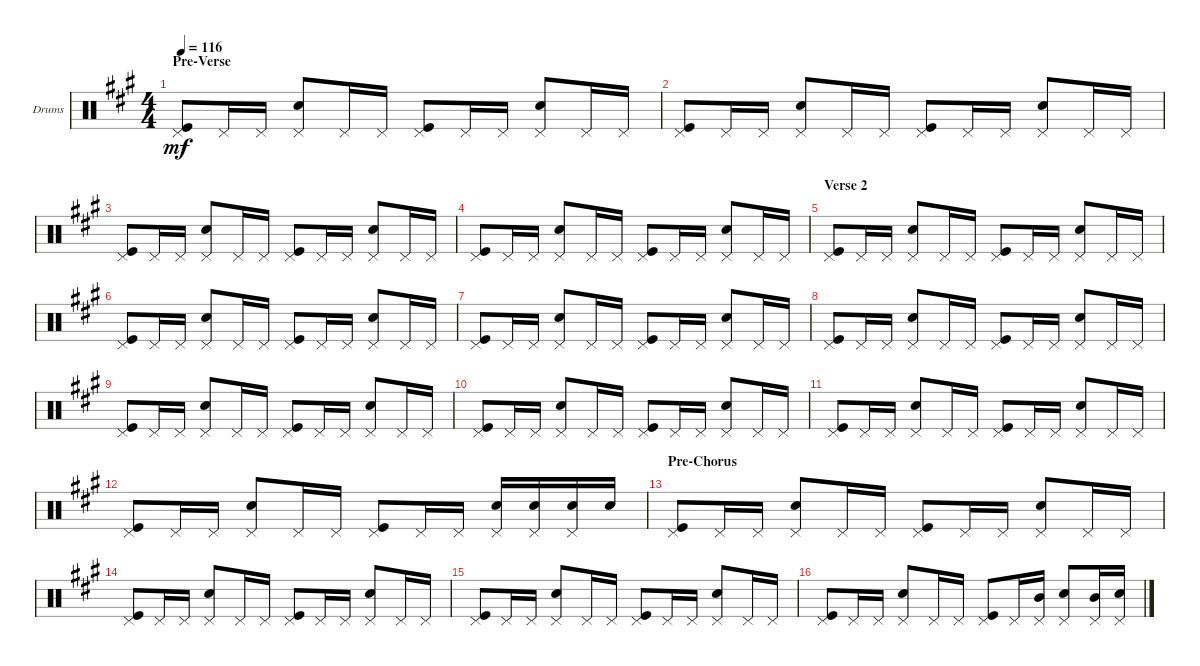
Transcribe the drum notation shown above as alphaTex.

\defaultSystemsLayout 4
\bracketExtendMode groupsimilarinstruments
\firstSystemTrackNameOrientation horizontal
\otherSystemsTrackNameOrientation horizontal
\track ("Drumkit" "Drums") {instrument percussion}
\staff {score}
\articulation defaults
\ts (4 4)
\section ("" "Pre-Verse")
\tempo 116
\clef neutral
\ks a
("Pedal Hi-Hat (hit)" "Kick (hit)").8{dy mf} "Pedal Hi-Hat (hit)".16 "Pedal Hi-Hat (hit)".16 ("Pedal Hi-Hat (hit)" "Snare (hit) 2").8 "Pedal Hi-Hat (hit)".16 "Pedal Hi-Hat (hit)".16 ("Pedal Hi-Hat (hit)" "Kick (hit)").8 "Pedal Hi-Hat (hit)".16 "Pedal Hi-Hat (hit)".16 ("Pedal Hi-Hat (hit)" "Snare (hit) 2").8 "Pedal Hi-Hat (hit)".16 "Pedal Hi-Hat (hit)".16 |
("Pedal Hi-Hat (hit)" "Kick (hit)").8 "Pedal Hi-Hat (hit)".16 "Pedal Hi-Hat (hit)".16 ("Pedal Hi-Hat (hit)" "Snare (hit) 2").8 "Pedal Hi-Hat (hit)".16 "Pedal Hi-Hat (hit)".16 ("Pedal Hi-Hat (hit)" "Kick (hit)").8 "Pedal Hi-Hat (hit)".16 "Pedal Hi-Hat (hit)".16 ("Pedal Hi-Hat (hit)" "Snare (hit) 2").8 "Pedal Hi-Hat (hit)".16 "Pedal Hi-Hat (hit)".16 |
("Pedal Hi-Hat (hit)" "Kick (hit)").8 "Pedal Hi-Hat (hit)".16 "Pedal Hi-Hat (hit)".16 ("Pedal Hi-Hat (hit)" "Snare (hit) 2").8 "Pedal Hi-Hat (hit)".16 "Pedal Hi-Hat (hit)".16 ("Pedal Hi-Hat (hit)" "Kick (hit)").8 "Pedal Hi-Hat (hit)".16 "Pedal Hi-Hat (hit)".16 ("Pedal Hi-Hat (hit)" "Snare (hit) 2").8 "Pedal Hi-Hat (hit)".16 "Pedal Hi-Hat (hit)".16 |
("Pedal Hi-Hat (hit)" "Kick (hit)").8 "Pedal Hi-Hat (hit)".16 "Pedal Hi-Hat (hit)".16 ("Pedal Hi-Hat (hit)" "Snare (hit) 2").8 "Pedal Hi-Hat (hit)".16 "Pedal Hi-Hat (hit)".16 ("Pedal Hi-Hat (hit)" "Kick (hit)").8 "Pedal Hi-Hat (hit)".16 "Pedal Hi-Hat (hit)".16 ("Pedal Hi-Hat (hit)" "Snare (hit) 2").8 "Pedal Hi-Hat (hit)".16 "Pedal Hi-Hat (hit)".16 |
\section ("" "Verse 2")
("Pedal Hi-Hat (hit)" "Kick (hit)").8 "Pedal Hi-Hat (hit)".16 "Pedal Hi-Hat (hit)".16 ("Pedal Hi-Hat (hit)" "Snare (hit) 2").8 "Pedal Hi-Hat (hit)".16 "Pedal Hi-Hat (hit)".16 ("Pedal Hi-Hat (hit)" "Kick (hit)").8 "Pedal Hi-Hat (hit)".16 "Pedal Hi-Hat (hit)".16 ("Pedal Hi-Hat (hit)" "Snare (hit) 2").8 "Pedal Hi-Hat (hit)".16 "Pedal Hi-Hat (hit)".16 |
("Pedal Hi-Hat (hit)" "Kick (hit)").8 "Pedal Hi-Hat (hit)".16 "Pedal Hi-Hat (hit)".16 ("Pedal Hi-Hat (hit)" "Snare (hit) 2").8 "Pedal Hi-Hat (hit)".16 "Pedal Hi-Hat (hit)".16 ("Pedal Hi-Hat (hit)" "Kick (hit)").8 "Pedal Hi-Hat (hit)".16 "Pedal Hi-Hat (hit)".16 ("Pedal Hi-Hat (hit)" "Snare (hit) 2").8 "Pedal Hi-Hat (hit)".16 "Pedal Hi-Hat (hit)".16 |
("Pedal Hi-Hat (hit)" "Kick (hit)").8 "Pedal Hi-Hat (hit)".16 "Pedal Hi-Hat (hit)".16 ("Pedal Hi-Hat (hit)" "Snare (hit) 2").8 "Pedal Hi-Hat (hit)".16 "Pedal Hi-Hat (hit)".16 ("Pedal Hi-Hat (hit)" "Kick (hit)").8 "Pedal Hi-Hat (hit)".16 "Pedal Hi-Hat (hit)".16 ("Pedal Hi-Hat (hit)" "Snare (hit) 2").8 "Pedal Hi-Hat (hit)".16 "Pedal Hi-Hat (hit)".16 |
("Pedal Hi-Hat (hit)" "Kick (hit)").8 "Pedal Hi-Hat (hit)".16 "Pedal Hi-Hat (hit)".16 ("Pedal Hi-Hat (hit)" "Snare (hit) 2").8 "Pedal Hi-Hat (hit)".16 "Pedal Hi-Hat (hit)".16 ("Pedal Hi-Hat (hit)" "Kick (hit)").8 "Pedal Hi-Hat (hit)".16 "Pedal Hi-Hat (hit)".16 ("Pedal Hi-Hat (hit)" "Snare (hit) 2").8 "Pedal Hi-Hat (hit)".16 "Pedal Hi-Hat (hit)".16 |
("Pedal Hi-Hat (hit)" "Kick (hit)").8 "Pedal Hi-Hat (hit)".16 "Pedal Hi-Hat (hit)".16 ("Pedal Hi-Hat (hit)" "Snare (hit) 2").8 "Pedal Hi-Hat (hit)".16 "Pedal Hi-Hat (hit)".16 ("Pedal Hi-Hat (hit)" "Kick (hit)").8 "Pedal Hi-Hat (hit)".16 "Pedal Hi-Hat (hit)".16 ("Pedal Hi-Hat (hit)" "Snare (hit) 2").8 "Pedal Hi-Hat (hit)".16 "Pedal Hi-Hat (hit)".16 |
("Pedal Hi-Hat (hit)" "Kick (hit)").8 "Pedal Hi-Hat (hit)".16 "Pedal Hi-Hat (hit)".16 ("Pedal Hi-Hat (hit)" "Snare (hit) 2").8 "Pedal Hi-Hat (hit)".16 "Pedal Hi-Hat (hit)".16 ("Pedal Hi-Hat (hit)" "Kick (hit)").8 "Pedal Hi-Hat (hit)".16 "Pedal Hi-Hat (hit)".16 ("Pedal Hi-Hat (hit)" "Snare (hit) 2").8 "Pedal Hi-Hat (hit)".16 "Pedal Hi-Hat (hit)".16 |
("Pedal Hi-Hat (hit)" "Kick (hit)").8 "Pedal Hi-Hat (hit)".16 "Pedal Hi-Hat (hit)".16 ("Pedal Hi-Hat (hit)" "Snare (hit) 2").8 "Pedal Hi-Hat (hit)".16 "Pedal Hi-Hat (hit)".16 ("Pedal Hi-Hat (hit)" "Kick (hit)").8 "Pedal Hi-Hat (hit)".16 "Pedal Hi-Hat (hit)".16 ("Pedal Hi-Hat (hit)" "Snare (hit) 2").8 "Pedal Hi-Hat (hit)".16 "Pedal Hi-Hat (hit)".16 |
("Pedal Hi-Hat (hit)" "Kick (hit)").8 "Pedal Hi-Hat (hit)".16 "Pedal Hi-Hat (hit)".16 ("Pedal Hi-Hat (hit)" "Snare (hit) 2").8 "Pedal Hi-Hat (hit)".16 "Pedal Hi-Hat (hit)".16 ("Pedal Hi-Hat (hit)" "Kick (hit)").8 "Pedal Hi-Hat (hit)".16 "Pedal Hi-Hat (hit)".16 ("Pedal Hi-Hat (hit)" "Snare (hit) 2").16 ("Pedal Hi-Hat (hit)" "Snare (hit) 2").16 ("Pedal Hi-Hat (hit)" "Snare (hit) 2").16 "Snare (hit) 2".16 |
\section ("" "Pre-Chorus")
("Pedal Hi-Hat (hit)" "Kick (hit)").8 "Pedal Hi-Hat (hit)".16 "Pedal Hi-Hat (hit)".16 ("Pedal Hi-Hat (hit)" "Snare (hit) 2").8 "Pedal Hi-Hat (hit)".16 "Pedal Hi-Hat (hit)".16 ("Pedal Hi-Hat (hit)" "Kick (hit)").8 "Pedal Hi-Hat (hit)".16 "Pedal Hi-Hat (hit)".16 ("Pedal Hi-Hat (hit)" "Snare (hit) 2").8 "Pedal Hi-Hat (hit)".16 "Pedal Hi-Hat (hit)".16 |
("Pedal Hi-Hat (hit)" "Kick (hit)").8 "Pedal Hi-Hat (hit)".16 "Pedal Hi-Hat (hit)".16 ("Pedal Hi-Hat (hit)" "Snare (hit) 2").8 "Pedal Hi-Hat (hit)".16 "Pedal Hi-Hat (hit)".16 ("Pedal Hi-Hat (hit)" "Kick (hit)").8 "Pedal Hi-Hat (hit)".16 "Pedal Hi-Hat (hit)".16 ("Pedal Hi-Hat (hit)" "Snare (hit) 2").8 "Pedal Hi-Hat (hit)".16 "Pedal Hi-Hat (hit)".16 |
("Pedal Hi-Hat (hit)" "Kick (hit)").8 "Pedal Hi-Hat (hit)".16 "Pedal Hi-Hat (hit)".16 ("Pedal Hi-Hat (hit)" "Snare (hit) 2").8 "Pedal Hi-Hat (hit)".16 "Pedal Hi-Hat (hit)".16 ("Pedal Hi-Hat (hit)" "Kick (hit)").8 "Pedal Hi-Hat (hit)".16 "Pedal Hi-Hat (hit)".16 ("Pedal Hi-Hat (hit)" "Snare (hit) 2").8 "Pedal Hi-Hat (hit)".16 "Pedal Hi-Hat (hit)".16 |
("Pedal Hi-Hat (hit)" "Kick (hit)").8 "Pedal Hi-Hat (hit)".16 "Pedal Hi-Hat (hit)".16 ("Pedal Hi-Hat (hit)" "Snare (hit) 2").8 "Pedal Hi-Hat (hit)".16 "Pedal Hi-Hat (hit)".16 ("Pedal Hi-Hat (hit)" "Kick (hit)").8 "Pedal Hi-Hat (hit)".16 ("Pedal Hi-Hat (hit)" "Mid Tom (hit)").16 ("Pedal Hi-Hat (hit)" "Snare (hit) 2").8 ("Pedal Hi-Hat (hit)" "Mid Tom (hit)").16 ("Pedal Hi-Hat (hit)" "Snare (hit) 2").16
